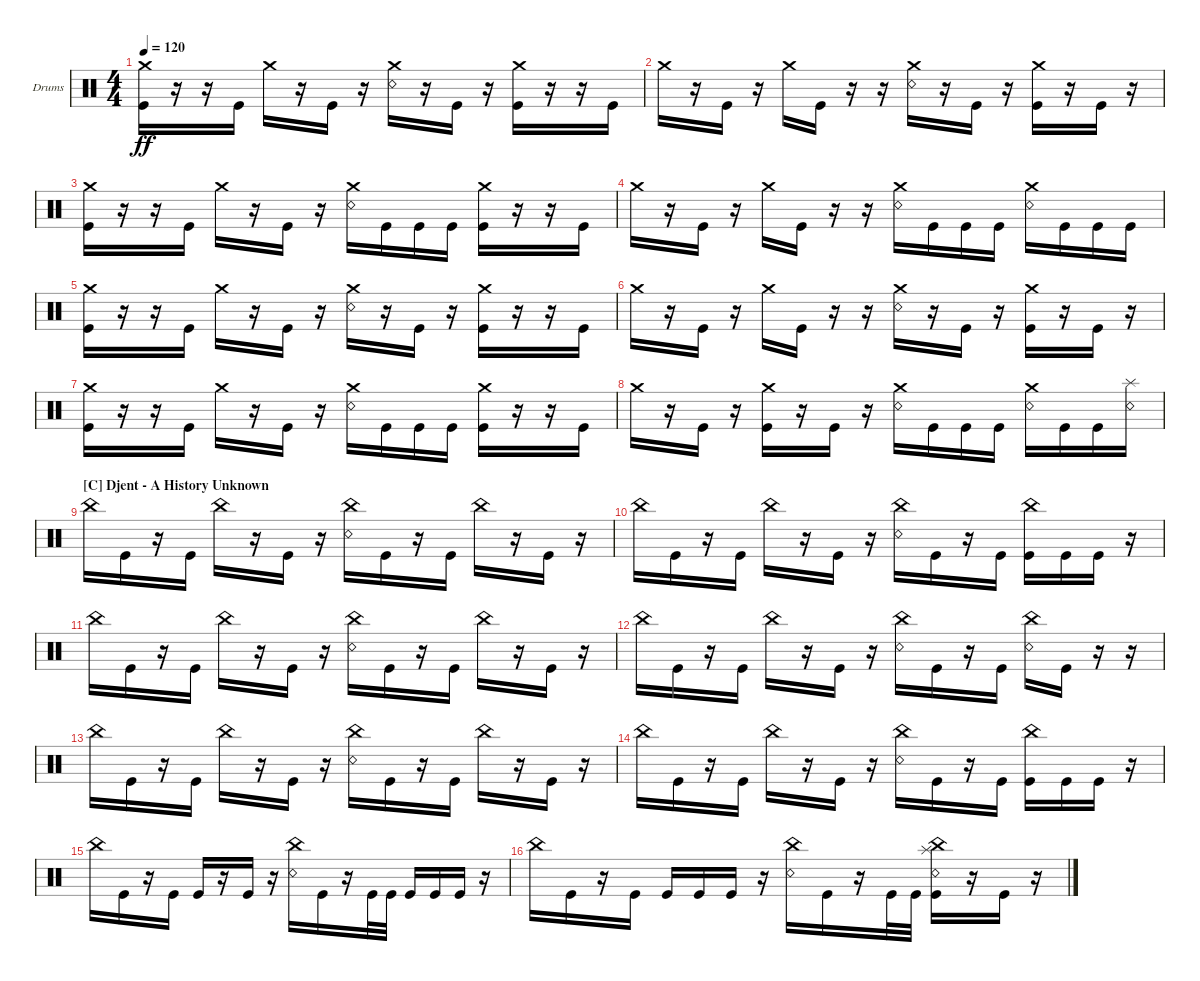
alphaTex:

\defaultSystemsLayout 4
\bracketExtendMode groupsimilarinstruments
\firstSystemTrackNameOrientation horizontal
\otherSystemsTrackNameOrientation horizontal
\track ("Drumkit" "Drums") {instrument percussion}
\staff {score}
\articulation defaults
\ts (4 4)
\tempo 120
\clef neutral
\ks c
("Crash medium (hit)" "Kick (hit)").16{dy ff} r.16 r.16 "Kick (hit)".16 "Crash medium (hit)".16 r.16 "Kick (hit)".16 r.16 ("Crash medium (hit)" "Snare (rim shot)").16 r.16 "Kick (hit)".16 r.16 ("Crash medium (hit)" "Kick (hit)").16 r.16 r.16 "Kick (hit)".16 |
"Crash medium (hit)".16 r.16 "Kick (hit)".16 r.16 "Crash medium (hit)".16 "Kick (hit)".16 r.16 r.16 ("Crash medium (hit)" "Snare (rim shot)").16 r.16 "Kick (hit)".16 r.16 ("Crash medium (hit)" "Kick (hit)").16 r.16 "Kick (hit)".16 r.16 |
("Crash medium (hit)" "Kick (hit)").16 r.16 r.16 "Kick (hit)".16 "Crash medium (hit)".16 r.16 "Kick (hit)".16 r.16 ("Crash medium (hit)" "Snare (rim shot)").16 "Kick (hit)".16 "Kick (hit)".16 "Kick (hit)".16 ("Crash medium (hit)" "Kick (hit)").16 r.16 r.16 "Kick (hit)".16 |
"Crash medium (hit)".16 r.16 "Kick (hit)".16 r.16 "Crash medium (hit)".16 "Kick (hit)".16 r.16 r.16 ("Crash medium (hit)" "Snare (rim shot)").16 "Kick (hit)".16 "Kick (hit)".16 "Kick (hit)".16 ("Crash medium (hit)" "Snare (rim shot)").16 "Kick (hit)".16 "Kick (hit)".16 "Kick (hit)".16 |
("Crash medium (hit)" "Kick (hit)").16 r.16 r.16 "Kick (hit)".16 "Crash medium (hit)".16 r.16 "Kick (hit)".16 r.16 ("Crash medium (hit)" "Snare (rim shot)").16 r.16 "Kick (hit)".16 r.16 ("Crash medium (hit)" "Kick (hit)").16 r.16 r.16 "Kick (hit)".16 |
"Crash medium (hit)".16 r.16 "Kick (hit)".16 r.16 "Crash medium (hit)".16 "Kick (hit)".16 r.16 r.16 ("Crash medium (hit)" "Snare (rim shot)").16 r.16 "Kick (hit)".16 r.16 ("Crash medium (hit)" "Kick (hit)").16 r.16 "Kick (hit)".16 r.16 |
("Crash medium (hit)" "Kick (hit)").16 r.16 r.16 "Kick (hit)".16 "Crash medium (hit)".16 r.16 "Kick (hit)".16 r.16 ("Crash medium (hit)" "Snare (rim shot)").16 "Kick (hit)".16 "Kick (hit)".16 "Kick (hit)".16 ("Crash medium (hit)" "Kick (hit)").16 r.16 r.16 "Kick (hit)".16 |
"Crash medium (hit)".16 r.16 "Kick (hit)".16 r.16 ("Crash medium (hit)" "Kick (hit)").16 r.16 "Kick (hit)".16 r.16 ("Crash medium (hit)" "Snare (rim shot)").16 "Kick (hit)".16 "Kick (hit)".16 "Kick (hit)".16 ("Crash medium (hit)" "Snare (rim shot)").16 "Kick (hit)".16 "Kick (hit)".16 ("Snare (rim shot)" "Splash (hit)").16 |
\section ("C" "Djent - A History Unknown")
"China (hit)".16 "Kick (hit)".16 r.16 "Kick (hit)".16 "China (hit)".16 r.16 "Kick (hit)".16 r.16 ("China (hit)" "Snare (rim shot)").16 "Kick (hit)".16 r.16 "Kick (hit)".16 "China (hit)".16 r.16 "Kick (hit)".16 r.16 |
"China (hit)".16 "Kick (hit)".16 r.16 "Kick (hit)".16 "China (hit)".16 r.16 "Kick (hit)".16 r.16 ("China (hit)" "Snare (rim shot)").16 "Kick (hit)".16 r.16 "Kick (hit)".16 ("China (hit)" "Kick (hit)").16 "Kick (hit)".16 "Kick (hit)".16 r.16 |
"China (hit)".16 "Kick (hit)".16 r.16 "Kick (hit)".16 "China (hit)".16 r.16 "Kick (hit)".16 r.16 ("China (hit)" "Snare (rim shot)").16 "Kick (hit)".16 r.16 "Kick (hit)".16 "China (hit)".16 r.16 "Kick (hit)".16 r.16 |
"China (hit)".16 "Kick (hit)".16 r.16 "Kick (hit)".16 "China (hit)".16 r.16 "Kick (hit)".16 r.16 ("China (hit)" "Snare (rim shot)").16 "Kick (hit)".16 r.16 "Kick (hit)".16 ("China (hit)" "Snare (rim shot)").16 "Kick (hit)".16 r.16 r.16 |
"China (hit)".16 "Kick (hit)".16 r.16 "Kick (hit)".16 "China (hit)".16 r.16 "Kick (hit)".16 r.16 ("China (hit)" "Snare (rim shot)").16 "Kick (hit)".16 r.16 "Kick (hit)".16 "China (hit)".16 r.16 "Kick (hit)".16 r.16 |
"China (hit)".16 "Kick (hit)".16 r.16 "Kick (hit)".16 "China (hit)".16 r.16 "Kick (hit)".16 r.16 ("China (hit)" "Snare (rim shot)").16 "Kick (hit)".16 r.16 "Kick (hit)".16 ("China (hit)" "Kick (hit)").16 "Kick (hit)".16 "Kick (hit)".16 r.16 |
"China (hit)".16 "Kick (hit)".16 r.16 "Kick (hit)".16 "Kick (hit)".16 r.16 "Kick (hit)".16 r.16 ("China (hit)" "Snare (rim shot)").16 "Kick (hit)".16 r.16 "Kick (hit)".32 "Kick (hit)".32 "Kick (hit)".16 "Kick (hit)".16 "Kick (hit)".16 r.16 |
"China (hit)".16 "Kick (hit)".16 r.16 "Kick (hit)".16 "Kick (hit)".16 "Kick (hit)".16 "Kick (hit)".16 r.16 ("China (hit)" "Snare (rim shot)").16 "Kick (hit)".16 r.16 "Kick (hit)".32 "Kick (hit)".32 ("China (hit)" "Snare (rim shot)" "Splash (hit)" "Kick (hit)").16 r.16 "Kick (hit)".16 r.16
